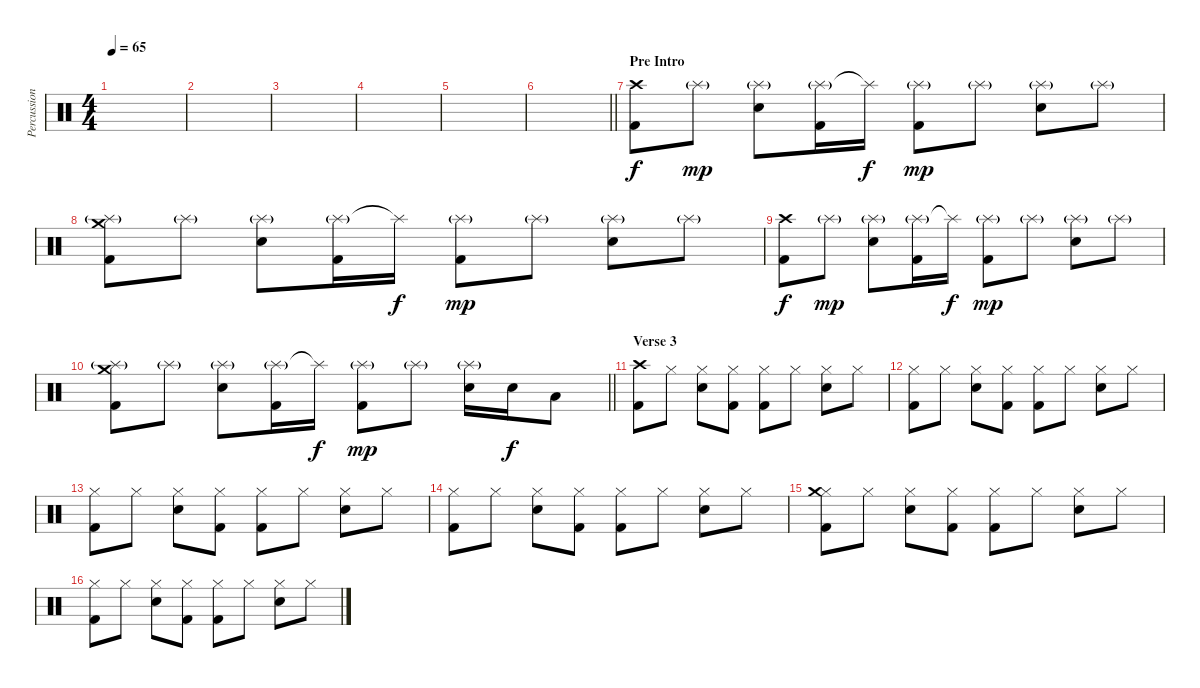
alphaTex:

\track ("Percussion" "Percussion") {instrument percussion}
\staff {score}
\articulation defaults
\ts (4 4)
\tempo 65
\clef neutral
\ks c
|
|
|
|
|
\barLineRight lightlight
|
\section ("" "Pre Intro")
("Crash high (hit)" "Kick (hit) 2").8 "Splash (hit)"{g}.8{dy mp} ("Splash (hit)"{g} "Electric Snare (hit)").8 ("Splash (hit)"{g} "Kick (hit) 2").16 "Splash (hit)"{t}.16{dy f} ("Splash (hit)"{g} "Kick (hit) 2").8{dy mp} "Splash (hit)"{g}.8 ("Splash (hit)"{g} "Electric Snare (hit)").8 "Splash (hit)"{g}.8 |
("Splash (hit)"{g} "Crash medium (hit)" "Kick (hit) 2").8 "Splash (hit)"{g}.8 ("Splash (hit)"{g} "Electric Snare (hit)").8 ("Splash (hit)"{g} "Kick (hit) 2").16 "Splash (hit)"{t}.16{dy f} ("Splash (hit)"{g} "Kick (hit) 2").8{dy mp} "Splash (hit)"{g}.8 ("Splash (hit)"{g} "Electric Snare (hit)").8 "Splash (hit)"{g}.8 |
("Crash high (hit)" "Kick (hit) 2").8{dy f} "Splash (hit)"{g}.8{dy mp} ("Splash (hit)"{g} "Electric Snare (hit)").8 ("Splash (hit)"{g} "Kick (hit) 2").16 "Splash (hit)"{t}.16{dy f} ("Splash (hit)"{g} "Kick (hit) 2").8{dy mp} "Splash (hit)"{g}.8 ("Splash (hit)"{g} "Electric Snare (hit)").8 "Splash (hit)"{g}.8 |
\barLineRight lightlight
("Splash (hit)"{g} "Crash medium (hit)" "Kick (hit) 2").8 "Splash (hit)"{g}.8 ("Splash (hit)"{g} "Electric Snare (hit)").8 ("Splash (hit)"{g} "Kick (hit) 2").16 "Splash (hit)"{t}.16{dy f} ("Splash (hit)"{g} "Kick (hit) 2").8{dy mp} "Splash (hit)"{g}.8 ("Splash (hit)"{g} "Electric Snare (hit)").16 "Electric Snare (hit)".16{dy f} "Low Tom (hit)".8 |
\section ("" "Verse 3")
("Crash high (hit)" "Kick (hit) 2").8 "Hi-Hat (closed)".8 ("Hi-Hat (closed)" "Electric Snare (hit)").8 ("Hi-Hat (closed)" "Kick (hit) 2").8 ("Hi-Hat (closed)" "Kick (hit) 2").8 "Hi-Hat (closed)".8 ("Hi-Hat (closed)" "Electric Snare (hit)").8 "Hi-Hat (closed)".8 |
("Hi-Hat (closed)" "Kick (hit) 2").8 "Hi-Hat (closed)".8 ("Hi-Hat (closed)" "Electric Snare (hit)").8 ("Hi-Hat (closed)" "Kick (hit) 2").8 ("Hi-Hat (closed)" "Kick (hit) 2").8 "Hi-Hat (closed)".8 ("Hi-Hat (closed)" "Electric Snare (hit)").8 "Hi-Hat (closed)".8 |
("Hi-Hat (closed)" "Kick (hit) 2").8 "Hi-Hat (closed)".8 ("Hi-Hat (closed)" "Electric Snare (hit)").8 ("Hi-Hat (closed)" "Kick (hit) 2").8 ("Hi-Hat (closed)" "Kick (hit) 2").8 "Hi-Hat (closed)".8 ("Hi-Hat (closed)" "Electric Snare (hit)").8 "Hi-Hat (closed)".8 |
("Hi-Hat (closed)" "Kick (hit) 2").8 "Hi-Hat (closed)".8 ("Hi-Hat (closed)" "Electric Snare (hit)").8 ("Hi-Hat (closed)" "Kick (hit) 2").8 ("Hi-Hat (closed)" "Kick (hit) 2").8 "Hi-Hat (closed)".8 ("Hi-Hat (closed)" "Electric Snare (hit)").8 "Hi-Hat (closed)".8 |
("Hi-Hat (closed)" "Crash medium (hit)" "Kick (hit) 2").8 "Hi-Hat (closed)".8 ("Hi-Hat (closed)" "Electric Snare (hit)").8 ("Hi-Hat (closed)" "Kick (hit) 2").8 ("Hi-Hat (closed)" "Kick (hit) 2").8 "Hi-Hat (closed)".8 ("Hi-Hat (closed)" "Electric Snare (hit)").8 "Hi-Hat (closed)".8 |
("Hi-Hat (closed)" "Kick (hit) 2").8 "Hi-Hat (closed)".8 ("Hi-Hat (closed)" "Electric Snare (hit)").8 ("Hi-Hat (closed)" "Kick (hit) 2").8 ("Hi-Hat (closed)" "Kick (hit) 2").8 "Hi-Hat (closed)".8 ("Hi-Hat (closed)" "Electric Snare (hit)").8 "Hi-Hat (closed)".8
